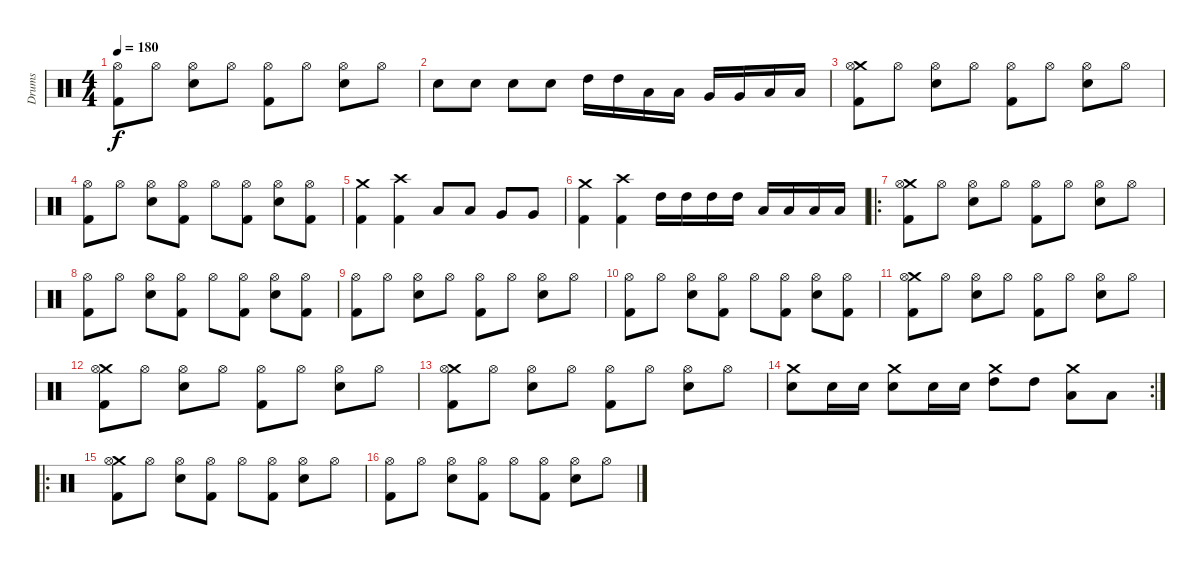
\track ("Drums" "Drums") {instrument percussion}
\staff {score}
\articulation defaults
\ts (4 4)
\tempo 180
\clef neutral
\ks c
("Hi-Hat (open)" "Kick (hit) 2").8{dy f} "Hi-Hat (open)".8 ("Hi-Hat (open)" "Snare (hit) 2").8 "Hi-Hat (open)".8 ("Hi-Hat (open)" "Kick (hit) 2").8 "Hi-Hat (open)".8 ("Hi-Hat (open)" "Snare (hit) 2").8 "Hi-Hat (open)".8 |
"Snare (hit) 2".8 "Snare (hit) 2".8 "Snare (hit) 2".8 "Snare (hit) 2".8 "High Tom (hit)".16 "High Tom (hit)".16 "Low Tom (hit)".16 "Low Tom (hit)".16 "Very Low Tom (hit)".16 "Very Low Tom (hit)".16 "Low Floor Tom (hit)".16 "Low Floor Tom (hit)".16 |
("Crash medium (hit)" "Hi-Hat (open)" "Kick (hit) 2").8 "Hi-Hat (open)".8 ("Hi-Hat (open)" "Snare (hit) 2").8 "Hi-Hat (open)".8 ("Hi-Hat (open)" "Kick (hit) 2").8 "Hi-Hat (open)".8 ("Hi-Hat (open)" "Snare (hit) 2").8 "Hi-Hat (open)".8 |
("Hi-Hat (open)" "Kick (hit) 2").8 "Hi-Hat (open)".8 ("Hi-Hat (open)" "Snare (hit) 2").8 ("Hi-Hat (open)" "Kick (hit) 2").8 "Hi-Hat (open)".8 ("Hi-Hat (open)" "Kick (hit) 2").8 ("Hi-Hat (open)" "Snare (hit) 2").8 ("Hi-Hat (open)" "Kick (hit) 2").8 |
("Crash medium (hit)" "Kick (hit) 2").4 ("Crash high (hit)" "Kick (hit) 2").4 "Low Tom (hit)".8 "Low Tom (hit)".8 "Very Low Tom (hit)".8 "Very Low Tom (hit)".8 |
("Crash medium (hit)" "Kick (hit) 2").4 ("Crash high (hit)" "Kick (hit) 2").4 "High Tom (hit)".16 "High Tom (hit)".16 "High Tom (hit)".16 "High Tom (hit)".16 "Low Tom (hit)".16 "Low Tom (hit)".16 "Low Tom (hit)".16 "Low Tom (hit)".16 |
\ro
("Crash medium (hit)" "Hi-Hat (open)" "Kick (hit) 2").8 "Hi-Hat (open)".8 ("Hi-Hat (open)" "Snare (hit) 2").8 "Hi-Hat (open)".8 ("Hi-Hat (open)" "Kick (hit) 2").8 "Hi-Hat (open)".8 ("Hi-Hat (open)" "Snare (hit) 2").8 "Hi-Hat (open)".8 |
("Hi-Hat (open)" "Kick (hit) 2").8 "Hi-Hat (open)".8 ("Hi-Hat (open)" "Snare (hit) 2").8 ("Hi-Hat (open)" "Kick (hit) 2").8 "Hi-Hat (open)".8 ("Hi-Hat (open)" "Kick (hit) 2").8 ("Hi-Hat (open)" "Snare (hit) 2").8 ("Hi-Hat (open)" "Kick (hit) 2").8 |
("Hi-Hat (open)" "Kick (hit) 2").8 "Hi-Hat (open)".8 ("Hi-Hat (open)" "Snare (hit) 2").8 "Hi-Hat (open)".8 ("Hi-Hat (open)" "Kick (hit) 2").8 "Hi-Hat (open)".8 ("Hi-Hat (open)" "Snare (hit) 2").8 "Hi-Hat (open)".8 |
("Hi-Hat (open)" "Kick (hit) 2").8 "Hi-Hat (open)".8 ("Hi-Hat (open)" "Snare (hit) 2").8 ("Hi-Hat (open)" "Kick (hit) 2").8 "Hi-Hat (open)".8 ("Hi-Hat (open)" "Kick (hit) 2").8 ("Hi-Hat (open)" "Snare (hit) 2").8 ("Hi-Hat (open)" "Kick (hit) 2").8 |
("Crash medium (hit)" "Hi-Hat (open)" "Kick (hit) 2").8 "Hi-Hat (open)".8 ("Hi-Hat (open)" "Snare (hit) 2").8 "Hi-Hat (open)".8 ("Hi-Hat (open)" "Kick (hit) 2").8 "Hi-Hat (open)".8 ("Hi-Hat (open)" "Snare (hit) 2").8 "Hi-Hat (open)".8 |
("Crash medium (hit)" "Hi-Hat (open)" "Kick (hit) 2").8 "Hi-Hat (open)".8 ("Hi-Hat (open)" "Snare (hit) 2").8 "Hi-Hat (open)".8 ("Hi-Hat (open)" "Kick (hit) 2").8 "Hi-Hat (open)".8 ("Hi-Hat (open)" "Snare (hit) 2").8 "Hi-Hat (open)".8 |
("Crash medium (hit)" "Hi-Hat (open)" "Kick (hit) 2").8 "Hi-Hat (open)".8 ("Hi-Hat (open)" "Snare (hit) 2").8 "Hi-Hat (open)".8 ("Hi-Hat (open)" "Kick (hit) 2").8 "Hi-Hat (open)".8 ("Hi-Hat (open)" "Snare (hit) 2").8 "Hi-Hat (open)".8 |
\rc 2
("Crash medium (hit)" "Snare (hit) 2").8 "Snare (hit) 2".16 "Snare (hit) 2".16 ("Crash medium (hit)" "Snare (hit) 2").8 "Snare (hit) 2".16 "Snare (hit) 2".16 ("Crash medium (hit)" "High Tom (hit)").8 "High Tom (hit)".8 ("Crash medium (hit)" "Low Tom (hit)").8 "Low Tom (hit)".8 |
\ro
("Crash medium (hit)" "Hi-Hat (open)" "Kick (hit) 2").8 "Hi-Hat (open)".8 ("Hi-Hat (open)" "Snare (hit) 2").8 ("Hi-Hat (open)" "Kick (hit) 2").8 "Hi-Hat (open)".8 ("Hi-Hat (open)" "Kick (hit) 2").8 ("Hi-Hat (open)" "Snare (hit) 2").8 "Hi-Hat (open)".8 |
("Hi-Hat (open)" "Kick (hit) 2").8 "Hi-Hat (open)".8 ("Hi-Hat (open)" "Snare (hit) 2").8 ("Hi-Hat (open)" "Kick (hit) 2").8 "Hi-Hat (open)".8 ("Hi-Hat (open)" "Kick (hit) 2").8 ("Hi-Hat (open)" "Snare (hit) 2").8 "Hi-Hat (open)".8
